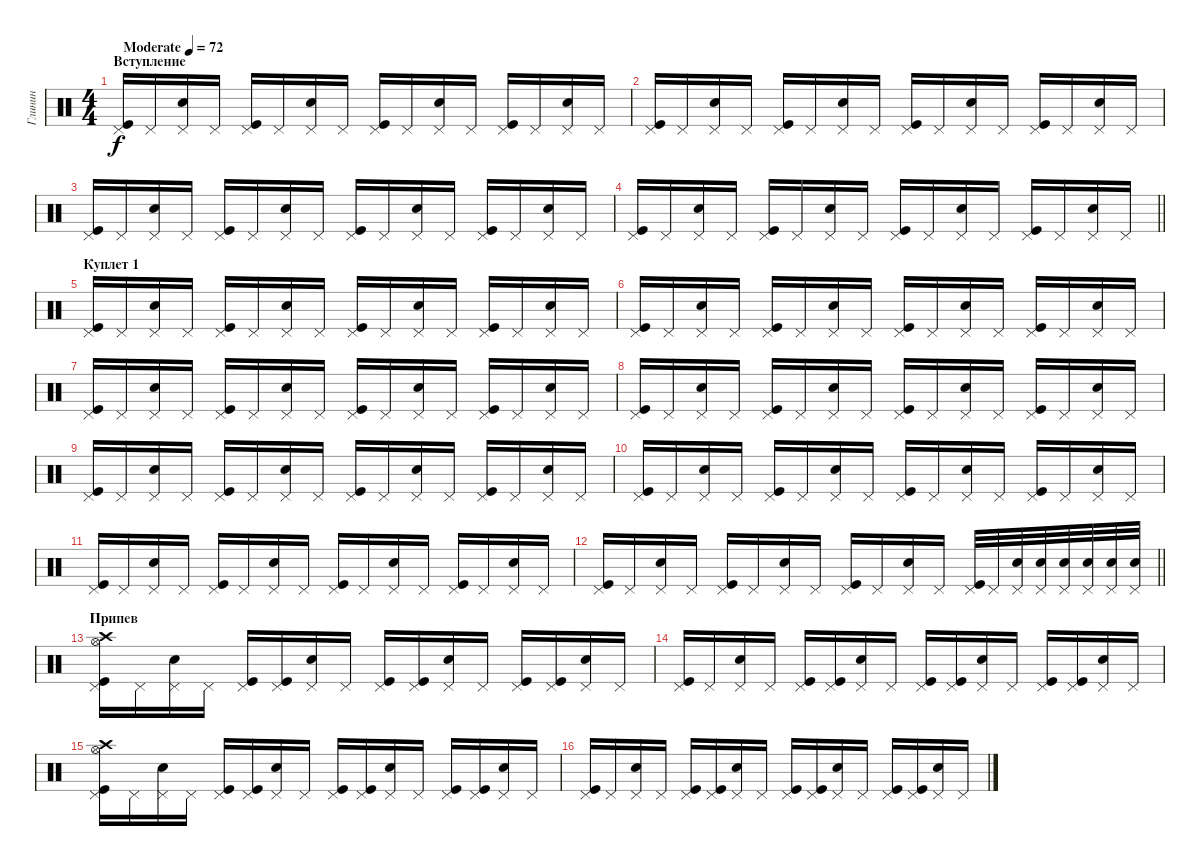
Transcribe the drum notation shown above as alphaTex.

\track ("Глинин" "Глинин") {instrument percussion}
\staff {score}
\articulation defaults
\ts (4 4)
\section ("" "Вступление")
\tempo (72 "Moderate")
\clef neutral
\ks c
("Pedal Hi-Hat (hit)" "Kick (hit)").16{dy f} "Pedal Hi-Hat (hit)".16 ("Pedal Hi-Hat (hit)" "Snare (hit) 2").16 "Pedal Hi-Hat (hit)".16 ("Pedal Hi-Hat (hit)" "Kick (hit)").16 "Pedal Hi-Hat (hit)".16 ("Pedal Hi-Hat (hit)" "Snare (hit) 2").16 "Pedal Hi-Hat (hit)".16 ("Pedal Hi-Hat (hit)" "Kick (hit)").16 "Pedal Hi-Hat (hit)".16 ("Pedal Hi-Hat (hit)" "Snare (hit) 2").16 "Pedal Hi-Hat (hit)".16 ("Pedal Hi-Hat (hit)" "Kick (hit)").16 "Pedal Hi-Hat (hit)".16 ("Pedal Hi-Hat (hit)" "Snare (hit) 2").16 "Pedal Hi-Hat (hit)".16 |
("Pedal Hi-Hat (hit)" "Kick (hit)").16 "Pedal Hi-Hat (hit)".16 ("Pedal Hi-Hat (hit)" "Snare (hit) 2").16 "Pedal Hi-Hat (hit)".16 ("Pedal Hi-Hat (hit)" "Kick (hit)").16 "Pedal Hi-Hat (hit)".16 ("Pedal Hi-Hat (hit)" "Snare (hit) 2").16 "Pedal Hi-Hat (hit)".16 ("Pedal Hi-Hat (hit)" "Kick (hit)").16 "Pedal Hi-Hat (hit)".16 ("Pedal Hi-Hat (hit)" "Snare (hit) 2").16 "Pedal Hi-Hat (hit)".16 ("Pedal Hi-Hat (hit)" "Kick (hit)").16 "Pedal Hi-Hat (hit)".16 ("Pedal Hi-Hat (hit)" "Snare (hit) 2").16 "Pedal Hi-Hat (hit)".16 |
("Pedal Hi-Hat (hit)" "Kick (hit)").16 "Pedal Hi-Hat (hit)".16 ("Pedal Hi-Hat (hit)" "Snare (hit) 2").16 "Pedal Hi-Hat (hit)".16 ("Pedal Hi-Hat (hit)" "Kick (hit)").16 "Pedal Hi-Hat (hit)".16 ("Pedal Hi-Hat (hit)" "Snare (hit) 2").16 "Pedal Hi-Hat (hit)".16 ("Pedal Hi-Hat (hit)" "Kick (hit)").16 "Pedal Hi-Hat (hit)".16 ("Pedal Hi-Hat (hit)" "Snare (hit) 2").16 "Pedal Hi-Hat (hit)".16 ("Pedal Hi-Hat (hit)" "Kick (hit)").16 "Pedal Hi-Hat (hit)".16 ("Pedal Hi-Hat (hit)" "Snare (hit) 2").16 "Pedal Hi-Hat (hit)".16 |
\barLineRight lightlight
("Pedal Hi-Hat (hit)" "Kick (hit)").16 "Pedal Hi-Hat (hit)".16 ("Pedal Hi-Hat (hit)" "Snare (hit) 2").16 "Pedal Hi-Hat (hit)".16 ("Pedal Hi-Hat (hit)" "Kick (hit)").16 "Pedal Hi-Hat (hit)".16 ("Pedal Hi-Hat (hit)" "Snare (hit) 2").16 "Pedal Hi-Hat (hit)".16 ("Pedal Hi-Hat (hit)" "Kick (hit)").16 "Pedal Hi-Hat (hit)".16 ("Pedal Hi-Hat (hit)" "Snare (hit) 2").16 "Pedal Hi-Hat (hit)".16 ("Pedal Hi-Hat (hit)" "Kick (hit)").16 "Pedal Hi-Hat (hit)".16 ("Pedal Hi-Hat (hit)" "Snare (hit) 2").16 "Pedal Hi-Hat (hit)".16 |
\section ("" "Куплет 1")
("Pedal Hi-Hat (hit)" "Kick (hit)").16 "Pedal Hi-Hat (hit)".16 ("Pedal Hi-Hat (hit)" "Snare (hit) 2").16 "Pedal Hi-Hat (hit)".16 ("Pedal Hi-Hat (hit)" "Kick (hit)").16 "Pedal Hi-Hat (hit)".16 ("Pedal Hi-Hat (hit)" "Snare (hit) 2").16 "Pedal Hi-Hat (hit)".16 ("Pedal Hi-Hat (hit)" "Kick (hit)").16 "Pedal Hi-Hat (hit)".16 ("Pedal Hi-Hat (hit)" "Snare (hit) 2").16 "Pedal Hi-Hat (hit)".16 ("Pedal Hi-Hat (hit)" "Kick (hit)").16 "Pedal Hi-Hat (hit)".16 ("Pedal Hi-Hat (hit)" "Snare (hit) 2").16 "Pedal Hi-Hat (hit)".16 |
("Pedal Hi-Hat (hit)" "Kick (hit)").16 "Pedal Hi-Hat (hit)".16 ("Pedal Hi-Hat (hit)" "Snare (hit) 2").16 "Pedal Hi-Hat (hit)".16 ("Pedal Hi-Hat (hit)" "Kick (hit)").16 "Pedal Hi-Hat (hit)".16 ("Pedal Hi-Hat (hit)" "Snare (hit) 2").16 "Pedal Hi-Hat (hit)".16 ("Pedal Hi-Hat (hit)" "Kick (hit)").16 "Pedal Hi-Hat (hit)".16 ("Pedal Hi-Hat (hit)" "Snare (hit) 2").16 "Pedal Hi-Hat (hit)".16 ("Pedal Hi-Hat (hit)" "Kick (hit)").16 "Pedal Hi-Hat (hit)".16 ("Pedal Hi-Hat (hit)" "Snare (hit) 2").16 "Pedal Hi-Hat (hit)".16 |
("Pedal Hi-Hat (hit)" "Kick (hit)").16 "Pedal Hi-Hat (hit)".16 ("Pedal Hi-Hat (hit)" "Snare (hit) 2").16 "Pedal Hi-Hat (hit)".16 ("Pedal Hi-Hat (hit)" "Kick (hit)").16 "Pedal Hi-Hat (hit)".16 ("Pedal Hi-Hat (hit)" "Snare (hit) 2").16 "Pedal Hi-Hat (hit)".16 ("Pedal Hi-Hat (hit)" "Kick (hit)").16 "Pedal Hi-Hat (hit)".16 ("Pedal Hi-Hat (hit)" "Snare (hit) 2").16 "Pedal Hi-Hat (hit)".16 ("Pedal Hi-Hat (hit)" "Kick (hit)").16 "Pedal Hi-Hat (hit)".16 ("Pedal Hi-Hat (hit)" "Snare (hit) 2").16 "Pedal Hi-Hat (hit)".16 |
("Pedal Hi-Hat (hit)" "Kick (hit)").16 "Pedal Hi-Hat (hit)".16 ("Pedal Hi-Hat (hit)" "Snare (hit) 2").16 "Pedal Hi-Hat (hit)".16 ("Pedal Hi-Hat (hit)" "Kick (hit)").16 "Pedal Hi-Hat (hit)".16 ("Pedal Hi-Hat (hit)" "Snare (hit) 2").16 "Pedal Hi-Hat (hit)".16 ("Pedal Hi-Hat (hit)" "Kick (hit)").16 "Pedal Hi-Hat (hit)".16 ("Pedal Hi-Hat (hit)" "Snare (hit) 2").16 "Pedal Hi-Hat (hit)".16 ("Pedal Hi-Hat (hit)" "Kick (hit)").16 "Pedal Hi-Hat (hit)".16 ("Pedal Hi-Hat (hit)" "Snare (hit) 2").16 "Pedal Hi-Hat (hit)".16 |
("Pedal Hi-Hat (hit)" "Kick (hit)").16 "Pedal Hi-Hat (hit)".16 ("Pedal Hi-Hat (hit)" "Snare (hit) 2").16 "Pedal Hi-Hat (hit)".16 ("Pedal Hi-Hat (hit)" "Kick (hit)").16 "Pedal Hi-Hat (hit)".16 ("Pedal Hi-Hat (hit)" "Snare (hit) 2").16 "Pedal Hi-Hat (hit)".16 ("Pedal Hi-Hat (hit)" "Kick (hit)").16 "Pedal Hi-Hat (hit)".16 ("Pedal Hi-Hat (hit)" "Snare (hit) 2").16 "Pedal Hi-Hat (hit)".16 ("Pedal Hi-Hat (hit)" "Kick (hit)").16 "Pedal Hi-Hat (hit)".16 ("Pedal Hi-Hat (hit)" "Snare (hit) 2").16 "Pedal Hi-Hat (hit)".16 |
("Pedal Hi-Hat (hit)" "Kick (hit)").16 "Pedal Hi-Hat (hit)".16 ("Pedal Hi-Hat (hit)" "Snare (hit) 2").16 "Pedal Hi-Hat (hit)".16 ("Pedal Hi-Hat (hit)" "Kick (hit)").16 "Pedal Hi-Hat (hit)".16 ("Pedal Hi-Hat (hit)" "Snare (hit) 2").16 "Pedal Hi-Hat (hit)".16 ("Pedal Hi-Hat (hit)" "Kick (hit)").16 "Pedal Hi-Hat (hit)".16 ("Pedal Hi-Hat (hit)" "Snare (hit) 2").16 "Pedal Hi-Hat (hit)".16 ("Pedal Hi-Hat (hit)" "Kick (hit)").16 "Pedal Hi-Hat (hit)".16 ("Pedal Hi-Hat (hit)" "Snare (hit) 2").16 "Pedal Hi-Hat (hit)".16 |
("Pedal Hi-Hat (hit)" "Kick (hit)").16 "Pedal Hi-Hat (hit)".16 ("Pedal Hi-Hat (hit)" "Snare (hit) 2").16 "Pedal Hi-Hat (hit)".16 ("Pedal Hi-Hat (hit)" "Kick (hit)").16 "Pedal Hi-Hat (hit)".16 ("Pedal Hi-Hat (hit)" "Snare (hit) 2").16 "Pedal Hi-Hat (hit)".16 ("Pedal Hi-Hat (hit)" "Kick (hit)").16 "Pedal Hi-Hat (hit)".16 ("Pedal Hi-Hat (hit)" "Snare (hit) 2").16 "Pedal Hi-Hat (hit)".16 ("Pedal Hi-Hat (hit)" "Kick (hit)").16 "Pedal Hi-Hat (hit)".16 ("Pedal Hi-Hat (hit)" "Snare (hit) 2").16 "Pedal Hi-Hat (hit)".16 |
\barLineRight lightlight
("Pedal Hi-Hat (hit)" "Kick (hit)").16 "Pedal Hi-Hat (hit)".16 ("Pedal Hi-Hat (hit)" "Snare (hit) 2").16 "Pedal Hi-Hat (hit)".16 ("Pedal Hi-Hat (hit)" "Kick (hit)").16 "Pedal Hi-Hat (hit)".16 ("Pedal Hi-Hat (hit)" "Snare (hit) 2").16 "Pedal Hi-Hat (hit)".16 ("Pedal Hi-Hat (hit)" "Kick (hit)").16 "Pedal Hi-Hat (hit)".16 ("Pedal Hi-Hat (hit)" "Snare (hit) 2").16 "Pedal Hi-Hat (hit)".16 ("Pedal Hi-Hat (hit)" "Kick (hit)").32 "Pedal Hi-Hat (hit)".32 ("Pedal Hi-Hat (hit)" "Snare (hit) 2").32 ("Pedal Hi-Hat (hit)" "Snare (hit) 2").32 ("Pedal Hi-Hat (hit)" "Snare (hit) 2").32 ("Pedal Hi-Hat (hit)" "Snare (hit) 2").32 ("Pedal Hi-Hat (hit)" "Snare (hit) 2").32 ("Pedal Hi-Hat (hit)" "Snare (hit) 2").32 |
\section ("" "Припев")
("Pedal Hi-Hat (hit)" "Kick (hit)" "Crash high (hit)" "Hi-Hat (open)").16 "Pedal Hi-Hat (hit)".16 ("Pedal Hi-Hat (hit)" "Snare (hit) 2").16 "Pedal Hi-Hat (hit)".16 ("Pedal Hi-Hat (hit)" "Kick (hit)").16 ("Pedal Hi-Hat (hit)" "Kick (hit)").16 ("Pedal Hi-Hat (hit)" "Snare (hit) 2").16 "Pedal Hi-Hat (hit)".16 ("Pedal Hi-Hat (hit)" "Kick (hit)").16 ("Pedal Hi-Hat (hit)" "Kick (hit)").16 ("Pedal Hi-Hat (hit)" "Snare (hit) 2").16 "Pedal Hi-Hat (hit)".16 ("Pedal Hi-Hat (hit)" "Kick (hit)").16 ("Pedal Hi-Hat (hit)" "Kick (hit)").16 ("Pedal Hi-Hat (hit)" "Snare (hit) 2").16 "Pedal Hi-Hat (hit)".16 |
("Pedal Hi-Hat (hit)" "Kick (hit)").16 "Pedal Hi-Hat (hit)".16 ("Pedal Hi-Hat (hit)" "Snare (hit) 2").16 "Pedal Hi-Hat (hit)".16 ("Pedal Hi-Hat (hit)" "Kick (hit)").16 ("Pedal Hi-Hat (hit)" "Kick (hit)").16 ("Pedal Hi-Hat (hit)" "Snare (hit) 2").16 "Pedal Hi-Hat (hit)".16 ("Pedal Hi-Hat (hit)" "Kick (hit)").16 ("Pedal Hi-Hat (hit)" "Kick (hit)").16 ("Pedal Hi-Hat (hit)" "Snare (hit) 2").16 "Pedal Hi-Hat (hit)".16 ("Pedal Hi-Hat (hit)" "Kick (hit)").16 ("Pedal Hi-Hat (hit)" "Kick (hit)").16 ("Pedal Hi-Hat (hit)" "Snare (hit) 2").16 "Pedal Hi-Hat (hit)".16 |
("Pedal Hi-Hat (hit)" "Kick (hit)" "Crash high (hit)" "Hi-Hat (open)").16 "Pedal Hi-Hat (hit)".16 ("Pedal Hi-Hat (hit)" "Snare (hit) 2").16 "Pedal Hi-Hat (hit)".16 ("Pedal Hi-Hat (hit)" "Kick (hit)").16 ("Pedal Hi-Hat (hit)" "Kick (hit)").16 ("Pedal Hi-Hat (hit)" "Snare (hit) 2").16 "Pedal Hi-Hat (hit)".16 ("Pedal Hi-Hat (hit)" "Kick (hit)").16 ("Pedal Hi-Hat (hit)" "Kick (hit)").16 ("Pedal Hi-Hat (hit)" "Snare (hit) 2").16 "Pedal Hi-Hat (hit)".16 ("Pedal Hi-Hat (hit)" "Kick (hit)").16 ("Pedal Hi-Hat (hit)" "Kick (hit)").16 ("Pedal Hi-Hat (hit)" "Snare (hit) 2").16 "Pedal Hi-Hat (hit)".16 |
("Pedal Hi-Hat (hit)" "Kick (hit)").16 "Pedal Hi-Hat (hit)".16 ("Pedal Hi-Hat (hit)" "Snare (hit) 2").16 "Pedal Hi-Hat (hit)".16 ("Pedal Hi-Hat (hit)" "Kick (hit)").16 ("Pedal Hi-Hat (hit)" "Kick (hit)").16 ("Pedal Hi-Hat (hit)" "Snare (hit) 2").16 "Pedal Hi-Hat (hit)".16 ("Pedal Hi-Hat (hit)" "Kick (hit)").16 ("Pedal Hi-Hat (hit)" "Kick (hit)").16 ("Pedal Hi-Hat (hit)" "Snare (hit) 2").16 "Pedal Hi-Hat (hit)".16 ("Pedal Hi-Hat (hit)" "Kick (hit)").16 ("Pedal Hi-Hat (hit)" "Kick (hit)").16 ("Pedal Hi-Hat (hit)" "Snare (hit) 2").16 "Pedal Hi-Hat (hit)".16
